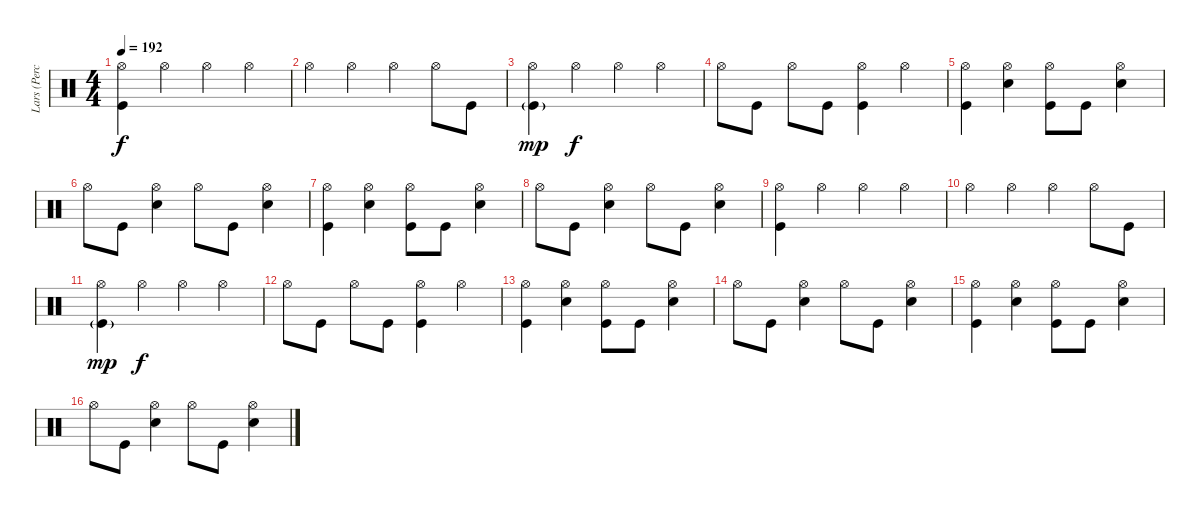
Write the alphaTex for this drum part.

\track ("Lars (Percussion)" "Lars (Perc") {instrument percussion}
\staff {score}
\articulation defaults
\ts (4 4)
\tempo 192
\clef neutral
\ks c
("Hi-Hat (open)" "Kick (hit)").4{dy f} "Hi-Hat (open)".4 "Hi-Hat (open)".4 "Hi-Hat (open)".4 |
"Hi-Hat (open)".4 "Hi-Hat (open)".4 "Hi-Hat (open)".4 "Hi-Hat (open)".8 "Kick (hit)".8 |
("Hi-Hat (open)" "Kick (hit)"{g}).4{dy mp} "Hi-Hat (open)".4{dy f} "Hi-Hat (open)".4 "Hi-Hat (open)".4 |
"Hi-Hat (open)".8 "Kick (hit)".8 "Hi-Hat (open)".8 "Kick (hit)".8 ("Hi-Hat (open)" "Kick (hit)").4 "Hi-Hat (open)".4 |
("Hi-Hat (open)" "Kick (hit)").4 ("Hi-Hat (open)" "Snare (hit) 2").4 ("Hi-Hat (open)" "Kick (hit)").8 "Kick (hit)".8 ("Hi-Hat (open)" "Snare (hit) 2").4 |
"Hi-Hat (open)".8 "Kick (hit)".8 ("Hi-Hat (open)" "Snare (hit) 2").4 "Hi-Hat (open)".8 "Kick (hit)".8 ("Hi-Hat (open)" "Snare (hit) 2").4 |
("Hi-Hat (open)" "Kick (hit)").4 ("Hi-Hat (open)" "Snare (hit) 2").4 ("Hi-Hat (open)" "Kick (hit)").8 "Kick (hit)".8 ("Hi-Hat (open)" "Snare (hit) 2").4 |
"Hi-Hat (open)".8 "Kick (hit)".8 ("Hi-Hat (open)" "Snare (hit) 2").4 "Hi-Hat (open)".8 "Kick (hit)".8 ("Hi-Hat (open)" "Snare (hit) 2").4 |
("Hi-Hat (open)" "Kick (hit)").4 "Hi-Hat (open)".4 "Hi-Hat (open)".4 "Hi-Hat (open)".4 |
"Hi-Hat (open)".4 "Hi-Hat (open)".4 "Hi-Hat (open)".4 "Hi-Hat (open)".8 "Kick (hit)".8 |
("Hi-Hat (open)" "Kick (hit)"{g}).4{dy mp} "Hi-Hat (open)".4{dy f} "Hi-Hat (open)".4 "Hi-Hat (open)".4 |
"Hi-Hat (open)".8 "Kick (hit)".8 "Hi-Hat (open)".8 "Kick (hit)".8 ("Hi-Hat (open)" "Kick (hit)").4 "Hi-Hat (open)".4 |
("Hi-Hat (open)" "Kick (hit)").4 ("Hi-Hat (open)" "Snare (hit) 2").4 ("Hi-Hat (open)" "Kick (hit)").8 "Kick (hit)".8 ("Hi-Hat (open)" "Snare (hit) 2").4 |
"Hi-Hat (open)".8 "Kick (hit)".8 ("Hi-Hat (open)" "Snare (hit) 2").4 "Hi-Hat (open)".8 "Kick (hit)".8 ("Hi-Hat (open)" "Snare (hit) 2").4 |
("Hi-Hat (open)" "Kick (hit)").4 ("Hi-Hat (open)" "Snare (hit) 2").4 ("Hi-Hat (open)" "Kick (hit)").8 "Kick (hit)".8 ("Hi-Hat (open)" "Snare (hit) 2").4 |
"Hi-Hat (open)".8 "Kick (hit)".8 ("Hi-Hat (open)" "Snare (hit) 2").4 "Hi-Hat (open)".8 "Kick (hit)".8 ("Hi-Hat (open)" "Snare (hit) 2").4
